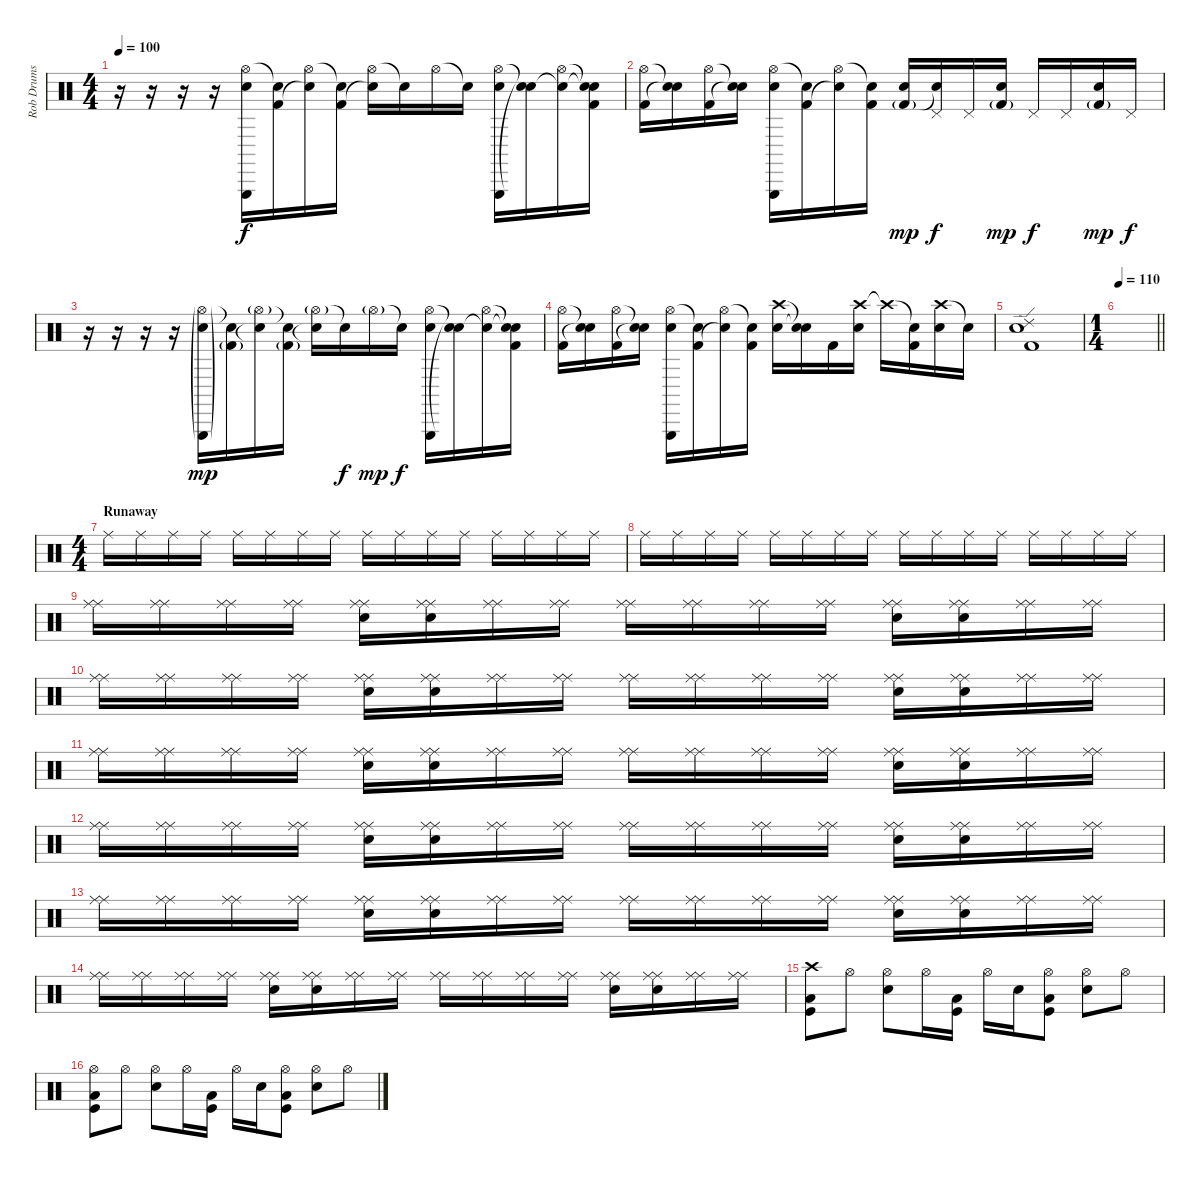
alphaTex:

\track ("Rob Drums" "Rob Drums") {instrument percussion}
\staff {score}
\articulation defaults
\ts (4 4)
\tempo 100
\clef neutral
\ks c
r.16{dy f} r.16 r.16 r.16 ("Hi-Hat (open)" "Triangle (hit)" "Electric Snare (hit)").16 ("Snare (hit)"{t} "Kick (hit) 2").16 ("Hi-Hat (open)" "Snare (hit)"{t}).16 ("Snare (hit)"{t} "Kick (hit) 2").16 ("Hi-Hat (open)" "Snare (hit)"{t}).16 "Snare (hit)"{t}.16 "Hi-Hat (open)".16 "Snare (hit)"{t}.16 ("Hi-Hat (open)" "Triangle (hit)" "Electric Snare (hit)").16 ("Snare (hit)"{t} "Snare (hit)"{t}).16 ("Hi-Hat (open)" "Snare (hit)"{t}).16 ("Snare (hit)"{t} "Snare (hit)"{t} "Kick (hit) 2").16 |
("Hi-Hat (open)" "Kick (hit) 2").16 ("Snare (hit)"{t} "Snare (hit)"{t}).16 ("Hi-Hat (open)" "Kick (hit) 2").16 ("Snare (hit)"{t} "Snare (hit)"{t}).16 ("Hi-Hat (open)" "Triangle (hit)" "Electric Snare (hit)").16 ("Snare (hit)"{t} "Kick (hit) 2").16 ("Hi-Hat (open)" "Snare (hit)"{t}).16 ("Snare (hit)"{t} "Kick (hit) 2").16 ("Electric Snare (hit)" "Kick (hit) 2"{g}).16{dy mp} ("Pedal Hi-Hat (hit)" "Snare (hit)"{t}).16{dy f} "Pedal Hi-Hat (hit)".16 ("Electric Snare (hit)" "Kick (hit) 2"{g}).16{dy mp} "Pedal Hi-Hat (hit)".16{dy f} "Pedal Hi-Hat (hit)".16 ("Electric Snare (hit)" "Kick (hit) 2"{g}).16{dy mp} "Pedal Hi-Hat (hit)".16{dy f} |
r.16 r.16 r.16 r.16 ("Hi-Hat (open)"{g} "Triangle (hit)"{g} "Electric Snare (hit)"{g}).16{dy mp} ("Snare (hit)"{t} "Kick (hit) 2"{g}).16 ("Hi-Hat (open)"{g} "Snare (hit)"{t}).16 ("Snare (hit)"{t} "Kick (hit) 2"{g}).16 ("Hi-Hat (open)"{g} "Snare (hit)"{t}).16 "Snare (hit)"{t}.16{dy f} "Hi-Hat (open)"{g}.16{dy mp} "Snare (hit)"{t}.16{dy f} ("Hi-Hat (open)" "Triangle (hit)" "Electric Snare (hit)").16 ("Snare (hit)"{t} "Snare (hit)"{t}).16 ("Hi-Hat (open)" "Snare (hit)"{t}).16 ("Snare (hit)"{t} "Snare (hit)"{t} "Kick (hit) 2").16 |
("Hi-Hat (open)" "Kick (hit) 2").16 ("Snare (hit)"{t} "Snare (hit)"{t}).16 ("Hi-Hat (open)" "Kick (hit) 2").16 ("Snare (hit)"{t} "Snare (hit)"{t}).16 ("Hi-Hat (open)" "Triangle (hit)" "Electric Snare (hit)").16 ("Snare (hit)"{t} "Kick (hit) 2").16 ("Hi-Hat (open)" "Snare (hit)"{t}).16 ("Snare (hit)"{t} "Kick (hit) 2").16 ("Crash high (hit)" "Electric Snare (hit)").16 ("Snare (hit)"{t} "Snare (hit)"{t}).16 "Kick (hit) 2".16 ("Crash high (hit)" "Electric Snare (hit)").16 "Crash high (hit)"{t}.16 ("Snare (hit)"{t} "Kick (hit) 2").16 ("Crash high (hit)" "Electric Snare (hit)").16 "Snare (hit)"{t}.16 |
("Ride (edge) 2" "Electric Snare (hit)" "Kick (hit) 2").1 |
\ts (1 4)
\tempo 110
\barLineRight lightlight
|
\ts (4 4)
\section ("" "Runaway")
"Ride (middle)".16{volume 6} "Ride (middle)".16 "Ride (middle)".16 "Ride (middle)".16 "Ride (middle)".16{volume 9} "Ride (middle)".16 "Ride (middle)".16 "Ride (middle)".16 "Ride (middle)".16{volume 13} "Ride (middle)".16 "Ride (middle)".16 "Ride (middle)".16 "Ride (middle)".16 "Ride (middle)".16 "Ride (middle)".16 "Ride (middle)".16 |
"Ride (middle)".16 "Ride (middle)".16 "Ride (middle)".16 "Ride (middle)".16 "Ride (middle)".16 "Ride (middle)".16 "Ride (middle)".16 "Ride (middle)".16 "Ride (middle)".16 "Ride (middle)".16 "Ride (middle)".16 "Ride (middle)".16 "Ride (middle)".16 "Ride (middle)".16 "Ride (middle)".16 "Ride (middle)".16 |
("Ride (middle)" "Ride (middle)").16 ("Ride (middle)" "Ride (middle)").16 ("Ride (middle)" "Ride (middle)").16 ("Ride (middle)" "Ride (middle)").16 ("Snare (hit) 2" "Ride (middle)" "Ride (middle)").16 ("Snare (hit) 2" "Ride (middle)" "Ride (middle)").16 ("Ride (middle)" "Ride (middle)").16 ("Ride (middle)" "Ride (middle)").16 ("Ride (middle)" "Ride (middle)").16 ("Ride (middle)" "Ride (middle)").16 ("Ride (middle)" "Ride (middle)").16 ("Ride (middle)" "Ride (middle)").16 ("Snare (hit) 2" "Ride (middle)" "Ride (middle)").16 ("Snare (hit) 2" "Ride (middle)" "Ride (middle)").16 ("Ride (middle)" "Ride (middle)").16 ("Ride (middle)" "Ride (middle)").16 |
("Ride (middle)" "Ride (middle)").16 ("Ride (middle)" "Ride (middle)").16 ("Ride (middle)" "Ride (middle)").16 ("Ride (middle)" "Ride (middle)").16 ("Snare (hit) 2" "Ride (middle)" "Ride (middle)").16 ("Snare (hit) 2" "Ride (middle)" "Ride (middle)").16 ("Ride (middle)" "Ride (middle)").16 ("Ride (middle)" "Ride (middle)").16 ("Ride (middle)" "Ride (middle)").16 ("Ride (middle)" "Ride (middle)").16 ("Ride (middle)" "Ride (middle)").16 ("Ride (middle)" "Ride (middle)").16 ("Snare (hit) 2" "Ride (middle)" "Ride (middle)").16 ("Snare (hit) 2" "Ride (middle)" "Ride (middle)").16 ("Ride (middle)" "Ride (middle)").16 ("Ride (middle)" "Ride (middle)").16 |
("Ride (middle)" "Ride (middle)").16 ("Ride (middle)" "Ride (middle)").16 ("Ride (middle)" "Ride (middle)").16 ("Ride (middle)" "Ride (middle)").16 ("Snare (hit) 2" "Ride (middle)" "Ride (middle)").16 ("Snare (hit) 2" "Ride (middle)" "Ride (middle)").16 ("Ride (middle)" "Ride (middle)").16 ("Ride (middle)" "Ride (middle)").16 ("Ride (middle)" "Ride (middle)").16 ("Ride (middle)" "Ride (middle)").16 ("Ride (middle)" "Ride (middle)").16 ("Ride (middle)" "Ride (middle)").16 ("Snare (hit) 2" "Ride (middle)" "Ride (middle)").16 ("Snare (hit) 2" "Ride (middle)" "Ride (middle)").16 ("Ride (middle)" "Ride (middle)").16 ("Ride (middle)" "Ride (middle)").16 |
("Ride (middle)" "Ride (middle)").16 ("Ride (middle)" "Ride (middle)").16 ("Ride (middle)" "Ride (middle)").16 ("Ride (middle)" "Ride (middle)").16 ("Snare (hit) 2" "Ride (middle)" "Ride (middle)").16 ("Snare (hit) 2" "Ride (middle)" "Ride (middle)").16 ("Ride (middle)" "Ride (middle)").16 ("Ride (middle)" "Ride (middle)").16 ("Ride (middle)" "Ride (middle)").16 ("Ride (middle)" "Ride (middle)").16 ("Ride (middle)" "Ride (middle)").16 ("Ride (middle)" "Ride (middle)").16 ("Snare (hit) 2" "Ride (middle)" "Ride (middle)").16 ("Snare (hit) 2" "Ride (middle)" "Ride (middle)").16 ("Ride (middle)" "Ride (middle)").16 ("Ride (middle)" "Ride (middle)").16 |
("Ride (middle)" "Ride (middle)").16 ("Ride (middle)" "Ride (middle)").16 ("Ride (middle)" "Ride (middle)").16 ("Ride (middle)" "Ride (middle)").16 ("Snare (hit) 2" "Ride (middle)" "Ride (middle)").16 ("Snare (hit) 2" "Ride (middle)" "Ride (middle)").16 ("Ride (middle)" "Ride (middle)").16 ("Ride (middle)" "Ride (middle)").16 ("Ride (middle)" "Ride (middle)").16 ("Ride (middle)" "Ride (middle)").16 ("Ride (middle)" "Ride (middle)").16 ("Ride (middle)" "Ride (middle)").16 ("Snare (hit) 2" "Ride (middle)" "Ride (middle)").16 ("Snare (hit) 2" "Ride (middle)" "Ride (middle)").16 ("Ride (middle)" "Ride (middle)").16 ("Ride (middle)" "Ride (middle)").16 |
("Ride (middle)" "Ride (middle)").16 ("Ride (middle)" "Ride (middle)").16 ("Ride (middle)" "Ride (middle)").16 ("Ride (middle)" "Ride (middle)").16 ("Snare (hit) 2" "Ride (middle)" "Ride (middle)").16 ("Snare (hit) 2" "Ride (middle)" "Ride (middle)").16 ("Ride (middle)" "Ride (middle)").16 ("Ride (middle)" "Ride (middle)").16 ("Ride (middle)" "Ride (middle)").16 ("Ride (middle)" "Ride (middle)").16 ("Ride (middle)" "Ride (middle)").16 ("Ride (middle)" "Ride (middle)").16 ("Snare (hit) 2" "Ride (middle)" "Ride (middle)").16 ("Snare (hit) 2" "Ride (middle)" "Ride (middle)").16 ("Ride (middle)" "Ride (middle)").16 ("Ride (middle)" "Ride (middle)").16 |
("Crash high (hit)" "Kick (hit)" "Low Tom (hit)").8{volume 16} "Hi-Hat (open)".8 ("Hi-Hat (open)" "Snare (hit) 2").8 "Hi-Hat (open)".16 ("Kick (hit)" "Low Tom (hit)").16 "Hi-Hat (open)".16 "Snare (hit) 2".16 ("Hi-Hat (open)" "Kick (hit)" "Low Tom (hit)").8 ("Hi-Hat (open)" "Snare (hit) 2").8 "Hi-Hat (open)".8 |
("Hi-Hat (open)" "Kick (hit)" "Low Tom (hit)").8 "Hi-Hat (open)".8 ("Hi-Hat (open)" "Snare (hit) 2").8 "Hi-Hat (open)".16 ("Kick (hit)" "Low Tom (hit)").16 "Hi-Hat (open)".16 "Snare (hit) 2".16 ("Hi-Hat (open)" "Kick (hit)" "Low Tom (hit)").8 ("Hi-Hat (open)" "Snare (hit) 2").8 "Hi-Hat (open)".8
